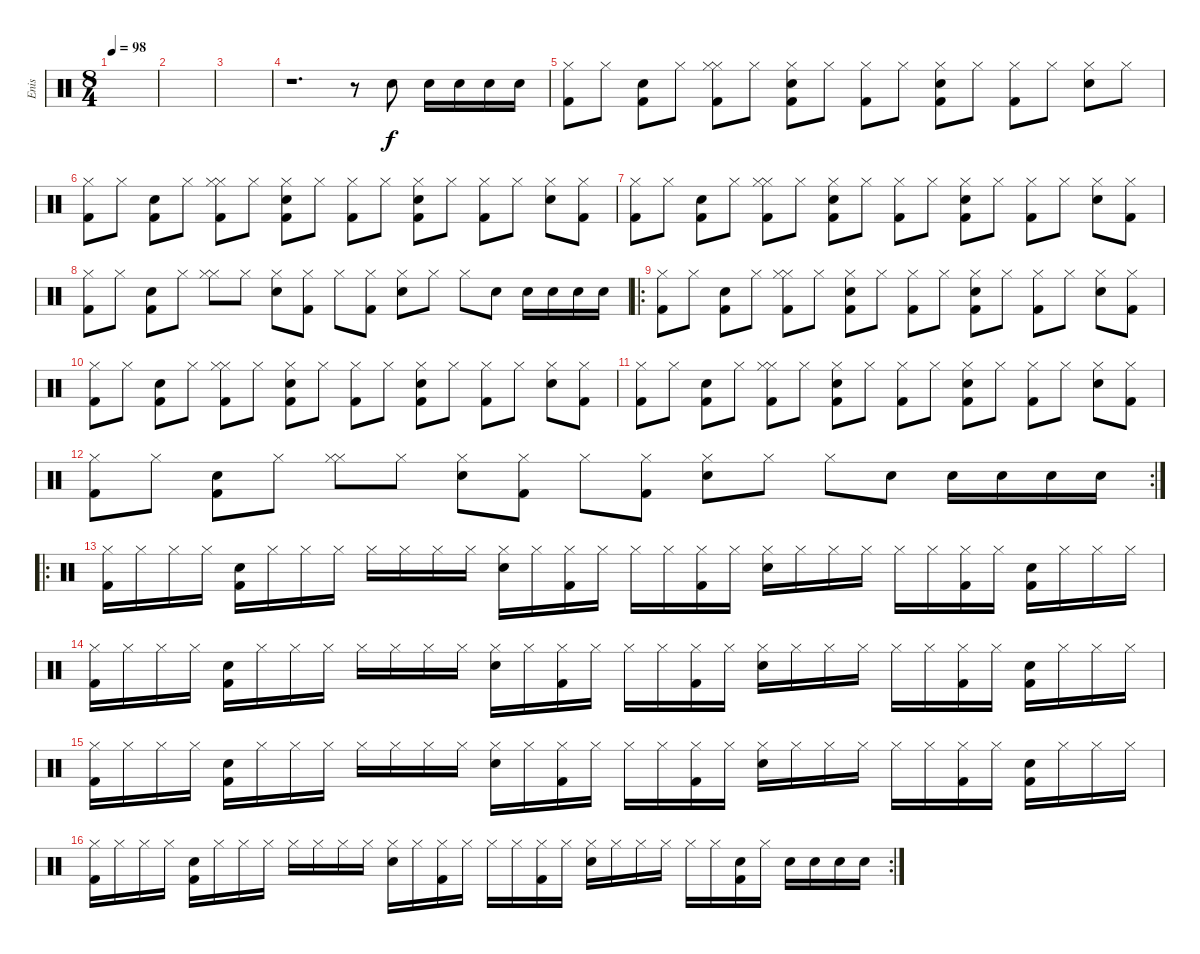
\track ("Enis" "Enis") {instrument percussion}
\staff {score}
\articulation defaults
\ts (8 4)
\tempo 98
\clef neutral
\ks c
|
|
|
r.1{d} r.8 "Snare (hit) 2".8 "Snare (hit) 2".16 "Snare (hit) 2".16 "Snare (hit) 2".16 "Snare (hit) 2".16 |
("Kick (hit) 2" "Hi-Hat (closed)").8 "Hi-Hat (closed)".8 ("Kick (hit) 2" "Snare (hit) 2").8 "Hi-Hat (closed)".8 ("Hi-Hat (closed)" "Hi-Hat (closed)" "Kick (hit) 2").8 "Hi-Hat (closed)".8 ("Hi-Hat (closed)" "Snare (hit) 2" "Kick (hit) 2").8 "Hi-Hat (closed)".8 ("Hi-Hat (closed)" "Kick (hit) 2").8 "Hi-Hat (closed)".8 ("Hi-Hat (closed)" "Snare (hit) 2" "Kick (hit) 2").8 "Hi-Hat (closed)".8 ("Hi-Hat (closed)" "Kick (hit) 2").8 "Hi-Hat (closed)".8 ("Hi-Hat (closed)" "Snare (hit) 2").8 "Hi-Hat (closed)".8 |
("Kick (hit) 2" "Hi-Hat (closed)").8 "Hi-Hat (closed)".8 ("Kick (hit) 2" "Snare (hit) 2").8 "Hi-Hat (closed)".8 ("Hi-Hat (closed)" "Hi-Hat (closed)" "Kick (hit) 2").8 "Hi-Hat (closed)".8 ("Hi-Hat (closed)" "Snare (hit) 2" "Kick (hit) 2").8 "Hi-Hat (closed)".8 ("Hi-Hat (closed)" "Kick (hit) 2").8 "Hi-Hat (closed)".8 ("Hi-Hat (closed)" "Snare (hit) 2" "Kick (hit) 2").8 "Hi-Hat (closed)".8 ("Hi-Hat (closed)" "Kick (hit) 2").8 "Hi-Hat (closed)".8 ("Hi-Hat (closed)" "Snare (hit) 2").8 ("Hi-Hat (closed)" "Kick (hit) 2").8 |
("Kick (hit) 2" "Hi-Hat (closed)").8 "Hi-Hat (closed)".8 ("Kick (hit) 2" "Snare (hit) 2").8 "Hi-Hat (closed)".8 ("Hi-Hat (closed)" "Hi-Hat (closed)" "Kick (hit) 2").8 "Hi-Hat (closed)".8 ("Hi-Hat (closed)" "Snare (hit) 2" "Kick (hit) 2").8 "Hi-Hat (closed)".8 ("Hi-Hat (closed)" "Kick (hit) 2").8 "Hi-Hat (closed)".8 ("Hi-Hat (closed)" "Snare (hit) 2" "Kick (hit) 2").8 "Hi-Hat (closed)".8 ("Hi-Hat (closed)" "Kick (hit) 2").8 "Hi-Hat (closed)".8 ("Hi-Hat (closed)" "Snare (hit) 2").8 ("Hi-Hat (closed)" "Kick (hit) 2").8 |
("Kick (hit) 2" "Hi-Hat (closed)").8 "Hi-Hat (closed)".8 ("Kick (hit) 2" "Snare (hit) 2").8 "Hi-Hat (closed)".8 ("Hi-Hat (closed)" "Hi-Hat (closed)").8 "Hi-Hat (closed)".8 ("Hi-Hat (closed)" "Snare (hit) 2").8 ("Hi-Hat (closed)" "Kick (hit) 2").8 "Hi-Hat (closed)".8 ("Hi-Hat (closed)" "Kick (hit) 2").8 ("Hi-Hat (closed)" "Snare (hit) 2").8 "Hi-Hat (closed)".8 "Hi-Hat (closed)".8 "Snare (hit) 2".8 "Snare (hit) 2".16 "Snare (hit) 2".16 "Snare (hit) 2".16 "Snare (hit) 2".16 |
\ro
("Kick (hit) 2" "Hi-Hat (closed)").8 "Hi-Hat (closed)".8 ("Kick (hit) 2" "Snare (hit) 2").8 "Hi-Hat (closed)".8 ("Hi-Hat (closed)" "Hi-Hat (closed)" "Kick (hit) 2").8 "Hi-Hat (closed)".8 ("Hi-Hat (closed)" "Snare (hit) 2" "Kick (hit) 2").8 "Hi-Hat (closed)".8 ("Hi-Hat (closed)" "Kick (hit) 2").8 "Hi-Hat (closed)".8 ("Hi-Hat (closed)" "Snare (hit) 2" "Kick (hit) 2").8 "Hi-Hat (closed)".8 ("Hi-Hat (closed)" "Kick (hit) 2").8 "Hi-Hat (closed)".8 ("Hi-Hat (closed)" "Snare (hit) 2").8 ("Hi-Hat (closed)" "Kick (hit) 2").8 |
("Kick (hit) 2" "Hi-Hat (closed)").8 "Hi-Hat (closed)".8 ("Kick (hit) 2" "Snare (hit) 2").8 "Hi-Hat (closed)".8 ("Hi-Hat (closed)" "Hi-Hat (closed)" "Kick (hit) 2").8 "Hi-Hat (closed)".8 ("Hi-Hat (closed)" "Snare (hit) 2" "Kick (hit) 2").8 "Hi-Hat (closed)".8 ("Hi-Hat (closed)" "Kick (hit) 2").8 "Hi-Hat (closed)".8 ("Hi-Hat (closed)" "Snare (hit) 2" "Kick (hit) 2").8 "Hi-Hat (closed)".8 ("Hi-Hat (closed)" "Kick (hit) 2").8 "Hi-Hat (closed)".8 ("Hi-Hat (closed)" "Snare (hit) 2").8 ("Hi-Hat (closed)" "Kick (hit) 2").8 |
("Kick (hit) 2" "Hi-Hat (closed)").8 "Hi-Hat (closed)".8 ("Kick (hit) 2" "Snare (hit) 2").8 "Hi-Hat (closed)".8 ("Hi-Hat (closed)" "Hi-Hat (closed)" "Kick (hit) 2").8 "Hi-Hat (closed)".8 ("Hi-Hat (closed)" "Snare (hit) 2" "Kick (hit) 2").8 "Hi-Hat (closed)".8 ("Hi-Hat (closed)" "Kick (hit) 2").8 "Hi-Hat (closed)".8 ("Hi-Hat (closed)" "Snare (hit) 2" "Kick (hit) 2").8 "Hi-Hat (closed)".8 ("Hi-Hat (closed)" "Kick (hit) 2").8 "Hi-Hat (closed)".8 ("Hi-Hat (closed)" "Snare (hit) 2").8 ("Hi-Hat (closed)" "Kick (hit) 2").8 |
\rc 2
("Kick (hit) 2" "Hi-Hat (closed)").8 "Hi-Hat (closed)".8 ("Kick (hit) 2" "Snare (hit) 2").8 "Hi-Hat (closed)".8 ("Hi-Hat (closed)" "Hi-Hat (closed)").8 "Hi-Hat (closed)".8 ("Hi-Hat (closed)" "Snare (hit) 2").8 ("Hi-Hat (closed)" "Kick (hit) 2").8 "Hi-Hat (closed)".8 ("Hi-Hat (closed)" "Kick (hit) 2").8 ("Hi-Hat (closed)" "Snare (hit) 2").8 "Hi-Hat (closed)".8 "Hi-Hat (closed)".8 "Snare (hit) 2".8 "Snare (hit) 2".16 "Snare (hit) 2".16 "Snare (hit) 2".16 "Snare (hit) 2".16 |
\ro
("Kick (hit) 2" "Hi-Hat (closed)").16 "Hi-Hat (closed)".16 "Hi-Hat (closed)".16 "Hi-Hat (closed)".16 ("Kick (hit) 2" "Snare (hit) 2").16 "Hi-Hat (closed)".16 "Hi-Hat (closed)".16 "Hi-Hat (closed)".16 "Hi-Hat (closed)".16 "Hi-Hat (closed)".16 "Hi-Hat (closed)".16 "Hi-Hat (closed)".16 ("Hi-Hat (closed)" "Snare (hit) 2").16 "Hi-Hat (closed)".16 ("Hi-Hat (closed)" "Kick (hit) 2").16 "Hi-Hat (closed)".16 "Hi-Hat (closed)".16 "Hi-Hat (closed)".16 ("Hi-Hat (closed)" "Kick (hit) 2").16 "Hi-Hat (closed)".16 ("Hi-Hat (closed)" "Snare (hit) 2").16 "Hi-Hat (closed)".16 "Hi-Hat (closed)".16 "Hi-Hat (closed)".16 "Hi-Hat (closed)".16 "Hi-Hat (closed)".16 ("Hi-Hat (closed)" "Kick (hit) 2").16 "Hi-Hat (closed)".16 ("Kick (hit) 2" "Snare (hit) 2").16 "Hi-Hat (closed)".16 "Hi-Hat (closed)".16 "Hi-Hat (closed)".16 |
("Kick (hit) 2" "Hi-Hat (closed)").16 "Hi-Hat (closed)".16 "Hi-Hat (closed)".16 "Hi-Hat (closed)".16 ("Kick (hit) 2" "Snare (hit) 2").16 "Hi-Hat (closed)".16 "Hi-Hat (closed)".16 "Hi-Hat (closed)".16 "Hi-Hat (closed)".16 "Hi-Hat (closed)".16 "Hi-Hat (closed)".16 "Hi-Hat (closed)".16 ("Hi-Hat (closed)" "Snare (hit) 2").16 "Hi-Hat (closed)".16 ("Hi-Hat (closed)" "Kick (hit) 2").16 "Hi-Hat (closed)".16 "Hi-Hat (closed)".16 "Hi-Hat (closed)".16 ("Hi-Hat (closed)" "Kick (hit) 2").16 "Hi-Hat (closed)".16 ("Hi-Hat (closed)" "Snare (hit) 2").16 "Hi-Hat (closed)".16 "Hi-Hat (closed)".16 "Hi-Hat (closed)".16 "Hi-Hat (closed)".16 "Hi-Hat (closed)".16 ("Hi-Hat (closed)" "Kick (hit) 2").16 "Hi-Hat (closed)".16 ("Kick (hit) 2" "Snare (hit) 2").16 "Hi-Hat (closed)".16 "Hi-Hat (closed)".16 "Hi-Hat (closed)".16 |
("Kick (hit) 2" "Hi-Hat (closed)").16 "Hi-Hat (closed)".16 "Hi-Hat (closed)".16 "Hi-Hat (closed)".16 ("Kick (hit) 2" "Snare (hit) 2").16 "Hi-Hat (closed)".16 "Hi-Hat (closed)".16 "Hi-Hat (closed)".16 "Hi-Hat (closed)".16 "Hi-Hat (closed)".16 "Hi-Hat (closed)".16 "Hi-Hat (closed)".16 ("Hi-Hat (closed)" "Snare (hit) 2").16 "Hi-Hat (closed)".16 ("Hi-Hat (closed)" "Kick (hit) 2").16 "Hi-Hat (closed)".16 "Hi-Hat (closed)".16 "Hi-Hat (closed)".16 ("Hi-Hat (closed)" "Kick (hit) 2").16 "Hi-Hat (closed)".16 ("Hi-Hat (closed)" "Snare (hit) 2").16 "Hi-Hat (closed)".16 "Hi-Hat (closed)".16 "Hi-Hat (closed)".16 "Hi-Hat (closed)".16 "Hi-Hat (closed)".16 ("Hi-Hat (closed)" "Kick (hit) 2").16 "Hi-Hat (closed)".16 ("Kick (hit) 2" "Snare (hit) 2").16 "Hi-Hat (closed)".16 "Hi-Hat (closed)".16 "Hi-Hat (closed)".16 |
\rc 2
("Kick (hit) 2" "Hi-Hat (closed)").16 "Hi-Hat (closed)".16 "Hi-Hat (closed)".16 "Hi-Hat (closed)".16 ("Kick (hit) 2" "Snare (hit) 2").16 "Hi-Hat (closed)".16 "Hi-Hat (closed)".16 "Hi-Hat (closed)".16 "Hi-Hat (closed)".16 "Hi-Hat (closed)".16 "Hi-Hat (closed)".16 "Hi-Hat (closed)".16 ("Hi-Hat (closed)" "Snare (hit) 2").16 "Hi-Hat (closed)".16 ("Hi-Hat (closed)" "Kick (hit) 2").16 "Hi-Hat (closed)".16 "Hi-Hat (closed)".16 "Hi-Hat (closed)".16 ("Hi-Hat (closed)" "Kick (hit) 2").16 "Hi-Hat (closed)".16 ("Hi-Hat (closed)" "Snare (hit) 2").16 "Hi-Hat (closed)".16 "Hi-Hat (closed)".16 "Hi-Hat (closed)".16 "Hi-Hat (closed)".16 "Hi-Hat (closed)".16 ("Snare (hit) 2" "Kick (hit) 2").16 "Hi-Hat (closed)".16 "Snare (hit) 2".16 "Snare (hit) 2".16 "Snare (hit) 2".16 "Snare (hit) 2".16
